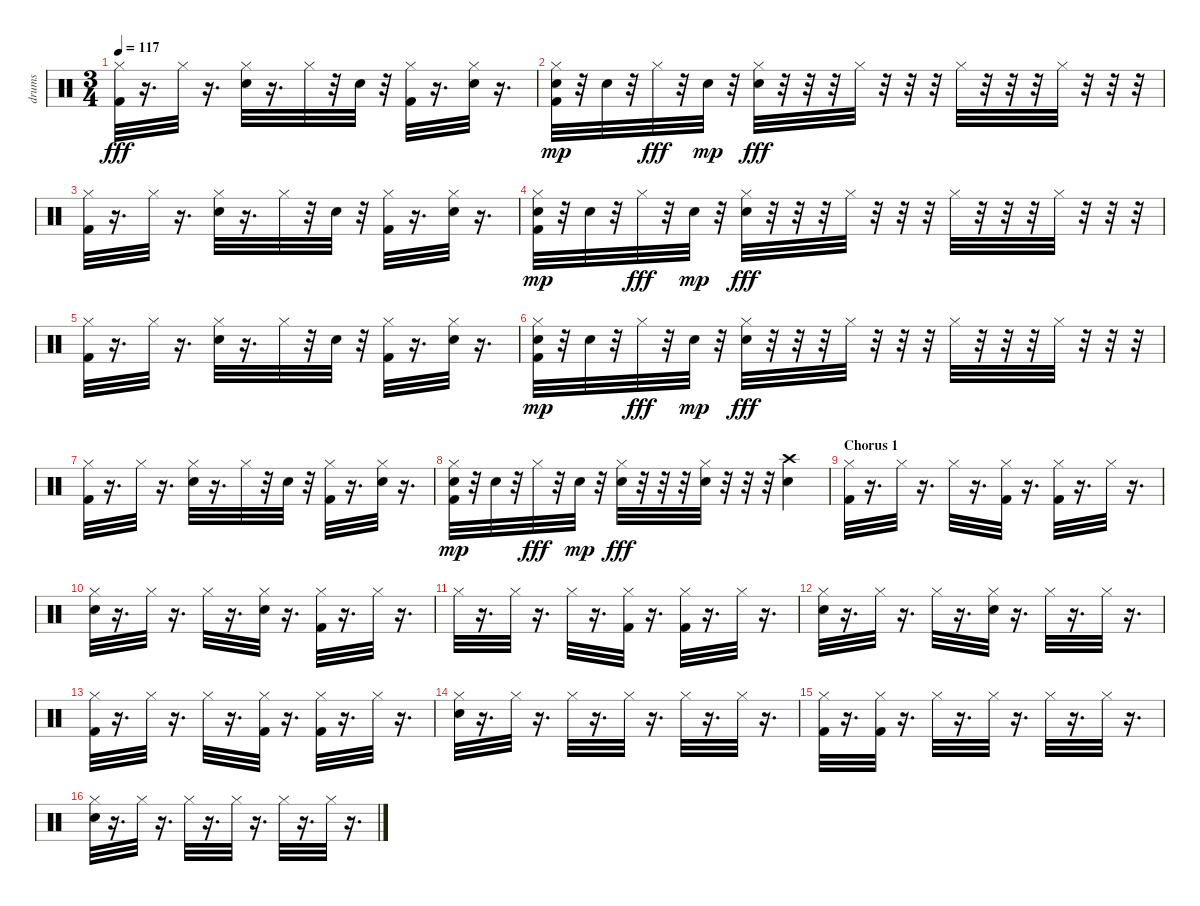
\track ("drums" "drums") {instrument percussion}
\staff {score}
\articulation defaults
\ts (3 4)
\tempo 117
\clef neutral
\ks c
("Hi-Hat (closed)" "Kick (hit) 2").32{dy fff} r.16{d} "Hi-Hat (closed)".32 r.16{d} ("Electric Snare (hit)" "Hi-Hat (closed)").32 r.16{d} "Hi-Hat (closed)".32 r.32 "Electric Snare (hit)".32 r.32 ("Hi-Hat (closed)" "Kick (hit) 2").32 r.16{d} ("Electric Snare (hit)" "Hi-Hat (closed)").32 r.16{d} |
("Hi-Hat (closed)" "Kick (hit) 2" "Electric Snare (hit)").32{dy mp} r.32 "Electric Snare (hit)".32 r.32 "Hi-Hat (closed)".32{dy fff} r.32 "Electric Snare (hit)".32{dy mp} r.32 ("Electric Snare (hit)" "Hi-Hat (closed)").32{dy fff} r.32 r.32 r.32 "Hi-Hat (closed)".32 r.32 r.32 r.32 "Hi-Hat (closed)".32 r.32 r.32 r.32 "Hi-Hat (closed)".32 r.32 r.32 r.32 |
("Hi-Hat (closed)" "Kick (hit) 2").32 r.16{d} "Hi-Hat (closed)".32 r.16{d} ("Electric Snare (hit)" "Hi-Hat (closed)").32 r.16{d} "Hi-Hat (closed)".32 r.32 "Electric Snare (hit)".32 r.32 ("Hi-Hat (closed)" "Kick (hit) 2").32 r.16{d} ("Electric Snare (hit)" "Hi-Hat (closed)").32 r.16{d} |
("Hi-Hat (closed)" "Kick (hit) 2" "Electric Snare (hit)").32{dy mp} r.32 "Electric Snare (hit)".32 r.32 "Hi-Hat (closed)".32{dy fff} r.32 "Electric Snare (hit)".32{dy mp} r.32 ("Electric Snare (hit)" "Hi-Hat (closed)").32{dy fff} r.32 r.32 r.32 "Hi-Hat (closed)".32 r.32 r.32 r.32 "Hi-Hat (closed)".32 r.32 r.32 r.32 "Hi-Hat (closed)".32 r.32 r.32 r.32 |
("Hi-Hat (closed)" "Kick (hit) 2").32 r.16{d} "Hi-Hat (closed)".32 r.16{d} ("Electric Snare (hit)" "Hi-Hat (closed)").32 r.16{d} "Hi-Hat (closed)".32 r.32 "Electric Snare (hit)".32 r.32 ("Hi-Hat (closed)" "Kick (hit) 2").32 r.16{d} ("Electric Snare (hit)" "Hi-Hat (closed)").32 r.16{d} |
("Hi-Hat (closed)" "Kick (hit) 2" "Electric Snare (hit)").32{dy mp} r.32 "Electric Snare (hit)".32 r.32 "Hi-Hat (closed)".32{dy fff} r.32 "Electric Snare (hit)".32{dy mp} r.32 ("Electric Snare (hit)" "Hi-Hat (closed)").32{dy fff} r.32 r.32 r.32 "Hi-Hat (closed)".32 r.32 r.32 r.32 "Hi-Hat (closed)".32 r.32 r.32 r.32 "Hi-Hat (closed)".32 r.32 r.32 r.32 |
("Hi-Hat (closed)" "Kick (hit) 2").32 r.16{d} "Hi-Hat (closed)".32 r.16{d} ("Electric Snare (hit)" "Hi-Hat (closed)").32 r.16{d} "Hi-Hat (closed)".32 r.32 "Electric Snare (hit)".32 r.32 ("Hi-Hat (closed)" "Kick (hit) 2").32 r.16{d} ("Electric Snare (hit)" "Hi-Hat (closed)").32 r.16{d} |
("Hi-Hat (closed)" "Kick (hit) 2" "Electric Snare (hit)").32{dy mp} r.32 "Electric Snare (hit)".32 r.32 "Hi-Hat (closed)".32{dy fff} r.32 "Electric Snare (hit)".32{dy mp} r.32 ("Electric Snare (hit)" "Hi-Hat (closed)").32{dy fff} r.32 r.32 r.32 ("Hi-Hat (closed)" "Electric Snare (hit)").32 r.32 r.32 r.32 ("Crash high (hit)" "Electric Snare (hit)").4 |
\section ("" "Chorus 1")
("Hi-Hat (closed)" "Kick (hit) 2").32 r.16{d} "Hi-Hat (closed)".32 r.16{d} "Hi-Hat (closed)".32 r.16{d} ("Hi-Hat (closed)" "Kick (hit) 2").32 r.16{d} ("Hi-Hat (closed)" "Kick (hit) 2").32 r.16{d} "Hi-Hat (closed)".32 r.16{d} |
("Electric Snare (hit)" "Hi-Hat (closed)").32 r.16{d} "Hi-Hat (closed)".32 r.16{d} "Hi-Hat (closed)".32 r.16{d} ("Electric Snare (hit)" "Hi-Hat (closed)").32 r.16{d} ("Kick (hit) 2" "Hi-Hat (closed)").32 r.16{d} "Hi-Hat (closed)".32 r.16{d} |
"Hi-Hat (closed)".32 r.16{d} "Hi-Hat (closed)".32 r.16{d} "Hi-Hat (closed)".32 r.16{d} ("Hi-Hat (closed)" "Kick (hit) 2").32 r.16{d} ("Hi-Hat (closed)" "Kick (hit) 2").32 r.16{d} "Hi-Hat (closed)".32 r.16{d} |
("Electric Snare (hit)" "Hi-Hat (closed)").32 r.16{d} "Hi-Hat (closed)".32 r.16{d} "Hi-Hat (closed)".32 r.16{d} ("Hi-Hat (closed)" "Electric Snare (hit)").32 r.16{d} "Hi-Hat (closed)".32 r.16{d} "Hi-Hat (closed)".32 r.16{d} |
("Kick (hit) 2" "Hi-Hat (closed)").32 r.16{d} "Hi-Hat (closed)".32 r.16{d} "Hi-Hat (closed)".32 r.16{d} ("Hi-Hat (closed)" "Kick (hit) 2").32 r.16{d} ("Kick (hit) 2" "Hi-Hat (closed)").32 r.16{d} "Hi-Hat (closed)".32 r.16{d} |
("Hi-Hat (closed)" "Electric Snare (hit)").32 r.16{d} "Hi-Hat (closed)".32 r.16{d} "Hi-Hat (closed)".32 r.16{d} "Hi-Hat (closed)".32 r.16{d} "Hi-Hat (closed)".32 r.16{d} "Hi-Hat (closed)".32 r.16{d} |
("Hi-Hat (closed)" "Kick (hit) 2").32 r.16{d} ("Kick (hit) 2" "Hi-Hat (closed)").32 r.16{d} "Hi-Hat (closed)".32 r.16{d} "Hi-Hat (closed)".32 r.16{d} "Hi-Hat (closed)".32 r.16{d} "Hi-Hat (closed)".32 r.16{d} |
("Electric Snare (hit)" "Hi-Hat (closed)").32 r.16{d} "Hi-Hat (closed)".32 r.16{d} "Hi-Hat (closed)".32 r.16{d} "Hi-Hat (closed)".32 r.16{d} "Hi-Hat (closed)".32 r.16{d} "Hi-Hat (closed)".32 r.16{d}
